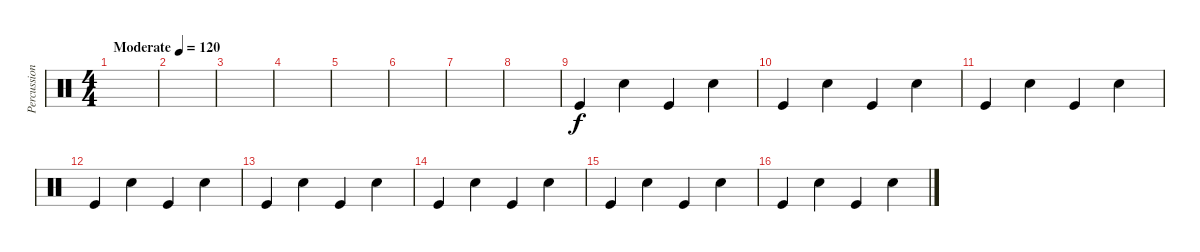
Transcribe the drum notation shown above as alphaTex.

\track ("Percussion" "Percussion") {instrument percussion}
\staff {score}
\articulation defaults
\ts (4 4)
\tempo (120 "Moderate")
\clef neutral
\ks c
|
|
|
|
|
|
|
|
"Kick (hit)".4 "Snare (hit) 2".4 "Kick (hit)".4 "Snare (hit) 2".4 |
"Kick (hit)".4 "Snare (hit) 2".4 "Kick (hit)".4 "Snare (hit) 2".4 |
"Kick (hit)".4 "Snare (hit) 2".4 "Kick (hit)".4 "Snare (hit) 2".4 |
"Kick (hit)".4 "Snare (hit) 2".4 "Kick (hit)".4 "Snare (hit) 2".4 |
"Kick (hit)".4 "Snare (hit) 2".4 "Kick (hit)".4 "Snare (hit) 2".4 |
"Kick (hit)".4 "Snare (hit) 2".4 "Kick (hit)".4 "Snare (hit) 2".4 |
"Kick (hit)".4 "Snare (hit) 2".4 "Kick (hit)".4 "Snare (hit) 2".4 |
"Kick (hit)".4 "Snare (hit) 2".4 "Kick (hit)".4 "Snare (hit) 2".4
